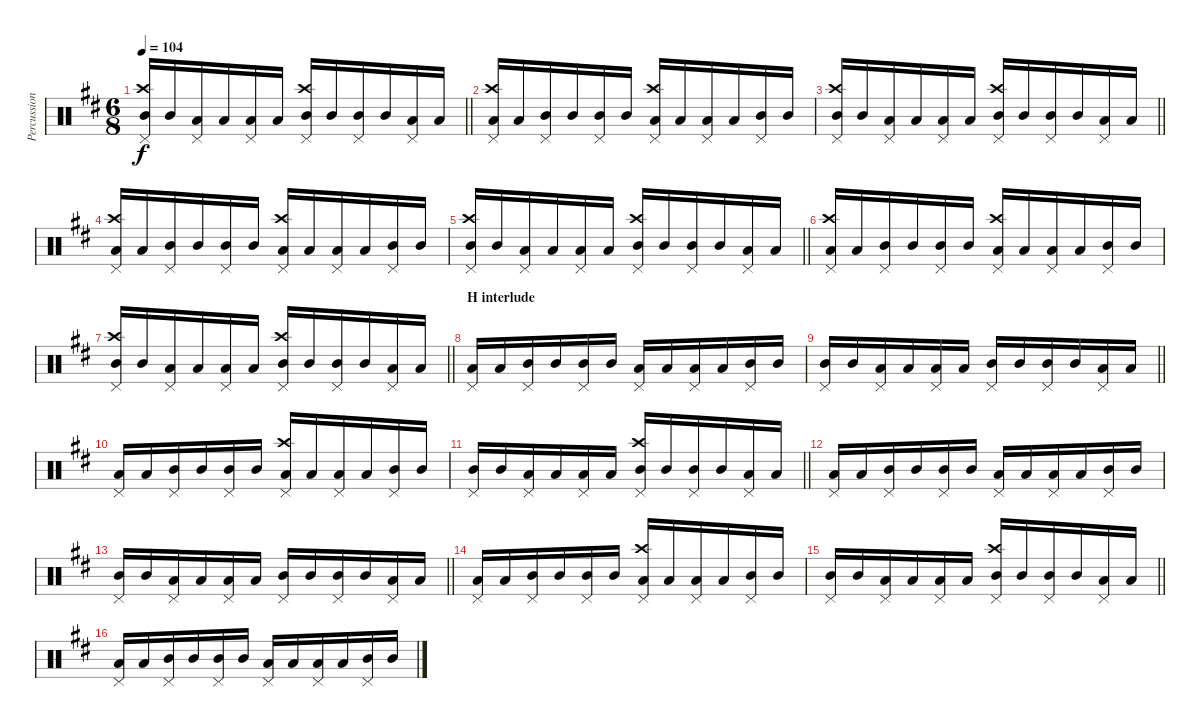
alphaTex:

\track ("Percussion" "Percussion") {instrument percussion}
\staff {score}
\articulation defaults
\ts (6 8)
\tempo 104
\clef neutral
\barLineRight lightlight
\ks d
("Pedal Hi-Hat (hit)" "Crash high (hit)" "Mid Tom (hit)").16{dy f} "Mid Tom (hit)".16 ("Pedal Hi-Hat (hit)" "Low Tom (hit)").16 "Low Tom (hit)".16 ("Pedal Hi-Hat (hit)" "Low Tom (hit)").16 "Low Tom (hit)".16 ("Pedal Hi-Hat (hit)" "Crash high (hit)" "Mid Tom (hit)").16 "Mid Tom (hit)".16 ("Pedal Hi-Hat (hit)" "Mid Tom (hit)").16 "Mid Tom (hit)".16 ("Pedal Hi-Hat (hit)" "Low Tom (hit)").16 "Low Tom (hit)".16 |
("Pedal Hi-Hat (hit)" "Crash high (hit)" "Low Tom (hit)").16 "Low Tom (hit)".16 ("Pedal Hi-Hat (hit)" "Mid Tom (hit)").16 "Mid Tom (hit)".16 ("Pedal Hi-Hat (hit)" "Mid Tom (hit)").16 "Mid Tom (hit)".16 ("Pedal Hi-Hat (hit)" "Crash high (hit)" "Low Tom (hit)").16 "Low Tom (hit)".16 ("Pedal Hi-Hat (hit)" "Low Tom (hit)").16 "Low Tom (hit)".16 ("Pedal Hi-Hat (hit)" "Mid Tom (hit)").16 "Mid Tom (hit)".16 |
\barLineRight lightlight
("Pedal Hi-Hat (hit)" "Crash high (hit)" "Mid Tom (hit)").16 "Mid Tom (hit)".16 ("Pedal Hi-Hat (hit)" "Low Tom (hit)").16 "Low Tom (hit)".16 ("Pedal Hi-Hat (hit)" "Low Tom (hit)").16 "Low Tom (hit)".16 ("Pedal Hi-Hat (hit)" "Crash high (hit)" "Mid Tom (hit)").16 "Mid Tom (hit)".16 ("Pedal Hi-Hat (hit)" "Mid Tom (hit)").16 "Mid Tom (hit)".16 ("Pedal Hi-Hat (hit)" "Low Tom (hit)").16 "Low Tom (hit)".16 |
("Pedal Hi-Hat (hit)" "Crash high (hit)" "Low Tom (hit)").16 "Low Tom (hit)".16 ("Pedal Hi-Hat (hit)" "Mid Tom (hit)").16 "Mid Tom (hit)".16 ("Pedal Hi-Hat (hit)" "Mid Tom (hit)").16 "Mid Tom (hit)".16 ("Pedal Hi-Hat (hit)" "Crash high (hit)" "Low Tom (hit)").16 "Low Tom (hit)".16 ("Pedal Hi-Hat (hit)" "Low Tom (hit)").16 "Low Tom (hit)".16 ("Pedal Hi-Hat (hit)" "Mid Tom (hit)").16 "Mid Tom (hit)".16 |
\barLineRight lightlight
("Pedal Hi-Hat (hit)" "Crash high (hit)" "Mid Tom (hit)").16 "Mid Tom (hit)".16 ("Pedal Hi-Hat (hit)" "Low Tom (hit)").16 "Low Tom (hit)".16 ("Pedal Hi-Hat (hit)" "Low Tom (hit)").16 "Low Tom (hit)".16 ("Pedal Hi-Hat (hit)" "Crash high (hit)" "Mid Tom (hit)").16 "Mid Tom (hit)".16 ("Pedal Hi-Hat (hit)" "Mid Tom (hit)").16 "Mid Tom (hit)".16 ("Pedal Hi-Hat (hit)" "Low Tom (hit)").16 "Low Tom (hit)".16 |
("Pedal Hi-Hat (hit)" "Crash high (hit)" "Low Tom (hit)").16 "Low Tom (hit)".16 ("Pedal Hi-Hat (hit)" "Mid Tom (hit)").16 "Mid Tom (hit)".16 ("Pedal Hi-Hat (hit)" "Mid Tom (hit)").16 "Mid Tom (hit)".16 ("Pedal Hi-Hat (hit)" "Crash high (hit)" "Low Tom (hit)").16 "Low Tom (hit)".16 ("Pedal Hi-Hat (hit)" "Low Tom (hit)").16 "Low Tom (hit)".16 ("Pedal Hi-Hat (hit)" "Mid Tom (hit)").16 "Mid Tom (hit)".16 |
\barLineRight lightlight
("Pedal Hi-Hat (hit)" "Crash high (hit)" "Mid Tom (hit)").16 "Mid Tom (hit)".16 ("Pedal Hi-Hat (hit)" "Low Tom (hit)").16 "Low Tom (hit)".16 ("Pedal Hi-Hat (hit)" "Low Tom (hit)").16 "Low Tom (hit)".16 ("Pedal Hi-Hat (hit)" "Crash high (hit)" "Mid Tom (hit)").16 "Mid Tom (hit)".16 ("Pedal Hi-Hat (hit)" "Mid Tom (hit)").16 "Mid Tom (hit)".16 ("Pedal Hi-Hat (hit)" "Low Tom (hit)").16 "Low Tom (hit)".16 |
\section ("" "H interlude")
("Pedal Hi-Hat (hit)" "Low Tom (hit)").16 "Low Tom (hit)".16 ("Pedal Hi-Hat (hit)" "Mid Tom (hit)").16 "Mid Tom (hit)".16 ("Pedal Hi-Hat (hit)" "Mid Tom (hit)").16 "Mid Tom (hit)".16 ("Pedal Hi-Hat (hit)" "Low Tom (hit)").16 "Low Tom (hit)".16 ("Pedal Hi-Hat (hit)" "Low Tom (hit)").16 "Low Tom (hit)".16 ("Pedal Hi-Hat (hit)" "Mid Tom (hit)").16 "Mid Tom (hit)".16 |
\barLineRight lightlight
("Pedal Hi-Hat (hit)" "Mid Tom (hit)").16 "Mid Tom (hit)".16 ("Pedal Hi-Hat (hit)" "Low Tom (hit)").16 "Low Tom (hit)".16 ("Pedal Hi-Hat (hit)" "Low Tom (hit)").16 "Low Tom (hit)".16 ("Pedal Hi-Hat (hit)" "Mid Tom (hit)").16 "Mid Tom (hit)".16 ("Pedal Hi-Hat (hit)" "Mid Tom (hit)").16 "Mid Tom (hit)".16 ("Pedal Hi-Hat (hit)" "Low Tom (hit)").16 "Low Tom (hit)".16 |
("Pedal Hi-Hat (hit)" "Low Tom (hit)").16 "Low Tom (hit)".16 ("Pedal Hi-Hat (hit)" "Mid Tom (hit)").16 "Mid Tom (hit)".16 ("Pedal Hi-Hat (hit)" "Mid Tom (hit)").16 "Mid Tom (hit)".16 ("Pedal Hi-Hat (hit)" "Crash high (hit)" "Low Tom (hit)").16 "Low Tom (hit)".16 ("Pedal Hi-Hat (hit)" "Low Tom (hit)").16 "Low Tom (hit)".16 ("Pedal Hi-Hat (hit)" "Mid Tom (hit)").16 "Mid Tom (hit)".16 |
\barLineRight lightlight
("Pedal Hi-Hat (hit)" "Mid Tom (hit)").16 "Mid Tom (hit)".16 ("Pedal Hi-Hat (hit)" "Low Tom (hit)").16 "Low Tom (hit)".16 ("Pedal Hi-Hat (hit)" "Low Tom (hit)").16 "Low Tom (hit)".16 ("Pedal Hi-Hat (hit)" "Crash high (hit)" "Mid Tom (hit)").16 "Mid Tom (hit)".16 ("Pedal Hi-Hat (hit)" "Mid Tom (hit)").16 "Mid Tom (hit)".16 ("Pedal Hi-Hat (hit)" "Low Tom (hit)").16 "Low Tom (hit)".16 |
("Pedal Hi-Hat (hit)" "Low Tom (hit)").16 "Low Tom (hit)".16 ("Pedal Hi-Hat (hit)" "Mid Tom (hit)").16 "Mid Tom (hit)".16 ("Pedal Hi-Hat (hit)" "Mid Tom (hit)").16 "Mid Tom (hit)".16 ("Pedal Hi-Hat (hit)" "Low Tom (hit)").16 "Low Tom (hit)".16 ("Pedal Hi-Hat (hit)" "Low Tom (hit)").16 "Low Tom (hit)".16 ("Pedal Hi-Hat (hit)" "Mid Tom (hit)").16 "Mid Tom (hit)".16 |
\barLineRight lightlight
("Pedal Hi-Hat (hit)" "Mid Tom (hit)").16 "Mid Tom (hit)".16 ("Pedal Hi-Hat (hit)" "Low Tom (hit)").16 "Low Tom (hit)".16 ("Pedal Hi-Hat (hit)" "Low Tom (hit)").16 "Low Tom (hit)".16 ("Pedal Hi-Hat (hit)" "Mid Tom (hit)").16 "Mid Tom (hit)".16 ("Pedal Hi-Hat (hit)" "Mid Tom (hit)").16 "Mid Tom (hit)".16 ("Pedal Hi-Hat (hit)" "Low Tom (hit)").16 "Low Tom (hit)".16 |
("Pedal Hi-Hat (hit)" "Low Tom (hit)").16 "Low Tom (hit)".16 ("Pedal Hi-Hat (hit)" "Mid Tom (hit)").16 "Mid Tom (hit)".16 ("Pedal Hi-Hat (hit)" "Mid Tom (hit)").16 "Mid Tom (hit)".16 ("Pedal Hi-Hat (hit)" "Crash high (hit)" "Low Tom (hit)").16 "Low Tom (hit)".16 ("Pedal Hi-Hat (hit)" "Low Tom (hit)").16 "Low Tom (hit)".16 ("Pedal Hi-Hat (hit)" "Mid Tom (hit)").16 "Mid Tom (hit)".16 |
\barLineRight lightlight
("Pedal Hi-Hat (hit)" "Mid Tom (hit)").16 "Mid Tom (hit)".16 ("Pedal Hi-Hat (hit)" "Low Tom (hit)").16 "Low Tom (hit)".16 ("Pedal Hi-Hat (hit)" "Low Tom (hit)").16 "Low Tom (hit)".16 ("Pedal Hi-Hat (hit)" "Crash high (hit)" "Mid Tom (hit)").16 "Mid Tom (hit)".16 ("Pedal Hi-Hat (hit)" "Mid Tom (hit)").16 "Mid Tom (hit)".16 ("Pedal Hi-Hat (hit)" "Low Tom (hit)").16 "Low Tom (hit)".16 |
("Pedal Hi-Hat (hit)" "Low Tom (hit)").16 "Low Tom (hit)".16 ("Pedal Hi-Hat (hit)" "Mid Tom (hit)").16 "Mid Tom (hit)".16 ("Pedal Hi-Hat (hit)" "Mid Tom (hit)").16 "Mid Tom (hit)".16 ("Pedal Hi-Hat (hit)" "Low Tom (hit)").16 "Low Tom (hit)".16 ("Pedal Hi-Hat (hit)" "Low Tom (hit)").16 "Low Tom (hit)".16 ("Pedal Hi-Hat (hit)" "Mid Tom (hit)").16 "Mid Tom (hit)".16
